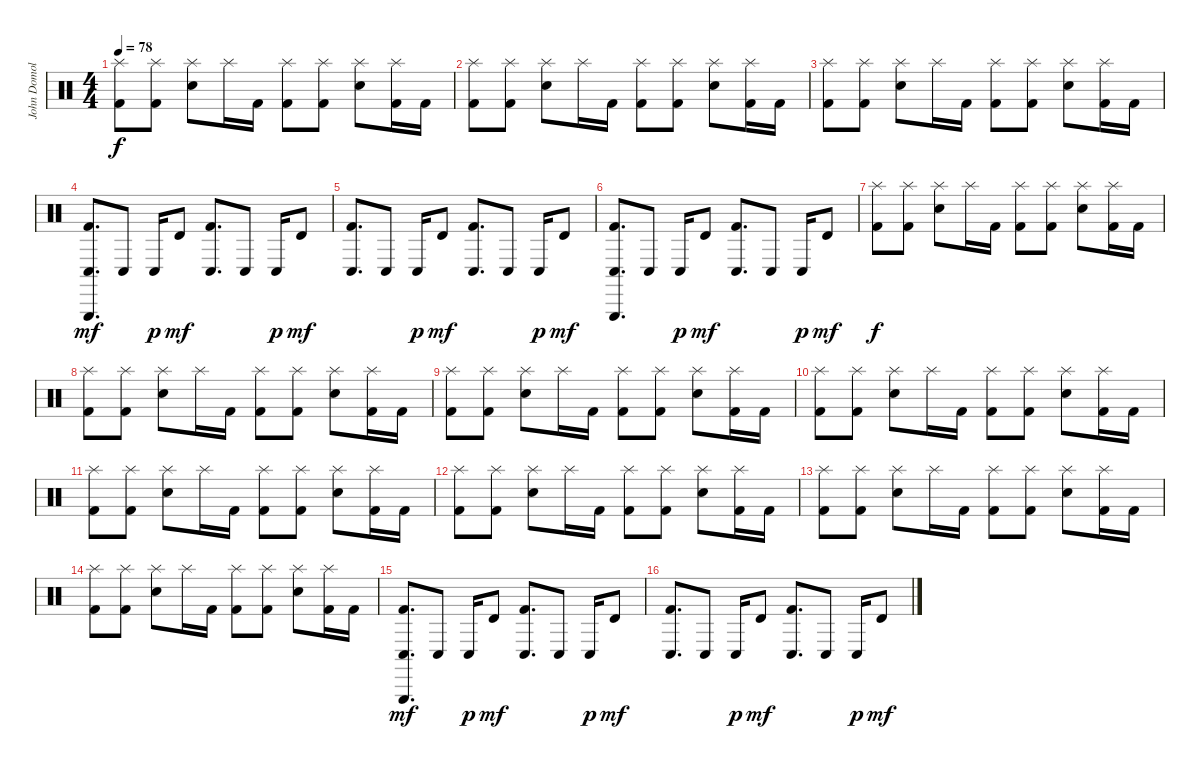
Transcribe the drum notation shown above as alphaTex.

\track ("John Domolyan (Drums)" "John Domol") {instrument percussion}
\staff {score}
\articulation defaults
\ts (4 4)
\tempo 78
\clef neutral
\ks c
("Splash (hit)" "Kick (hit) 2").8{dy f} ("Splash (hit)" "Kick (hit) 2").8 ("Splash (hit)" "Electric Snare (hit)").8 "Splash (hit)".16 "Kick (hit) 2".16 ("Splash (hit)" "Kick (hit) 2").8 ("Splash (hit)" "Kick (hit) 2").8 ("Splash (hit)" "Electric Snare (hit)").8 ("Splash (hit)" "Kick (hit) 2").16 "Kick (hit) 2".16 |
("Splash (hit)" "Kick (hit) 2").8 ("Splash (hit)" "Kick (hit) 2").8 ("Splash (hit)" "Electric Snare (hit)").8 "Splash (hit)".16 "Kick (hit) 2".16 ("Splash (hit)" "Kick (hit) 2").8 ("Splash (hit)" "Kick (hit) 2").8 ("Splash (hit)" "Electric Snare (hit)").8 ("Splash (hit)" "Kick (hit) 2").16 "Kick (hit) 2".16 |
("Splash (hit)" "Kick (hit) 2").8 ("Splash (hit)" "Kick (hit) 2").8 ("Splash (hit)" "Electric Snare (hit)").8 "Splash (hit)".16 "Kick (hit) 2".16 ("Splash (hit)" "Kick (hit) 2").8 ("Splash (hit)" "Kick (hit) 2").8 ("Splash (hit)" "Electric Snare (hit)").8 ("Splash (hit)" "Kick (hit) 2").16 "Kick (hit) 2".16 |
("Triangle (hit)" "Conga low (hit)" "Kick (hit) 2").8{d dy mf} "Conga low (hit)".8 "Conga low (hit)".16{dy p} "Timbale high (hit)".8{dy mf} ("Conga low (hit)" "Kick (hit) 2").8{d} "Conga low (hit)".8 "Conga low (hit)".16{dy p} "Timbale high (hit)".8{dy mf} |
("Conga low (hit)" "Kick (hit) 2").8{d} "Conga low (hit)".8 "Conga low (hit)".16{dy p} "Timbale high (hit)".8{dy mf} ("Conga low (hit)" "Kick (hit) 2").8{d} "Conga low (hit)".8 "Conga low (hit)".16{dy p} "Timbale high (hit)".8{dy mf} |
("Triangle (hit)" "Conga low (hit)" "Kick (hit) 2").8{d} "Conga low (hit)".8 "Conga low (hit)".16{dy p} "Timbale high (hit)".8{dy mf} ("Conga low (hit)" "Kick (hit) 2").8{d} "Conga low (hit)".8 "Conga low (hit)".16{dy p} "Timbale high (hit)".8{dy mf} |
("Splash (hit)" "Kick (hit) 2").8{dy f} ("Splash (hit)" "Kick (hit) 2").8 ("Splash (hit)" "Electric Snare (hit)").8 "Splash (hit)".16 "Kick (hit) 2".16 ("Splash (hit)" "Kick (hit) 2").8 ("Splash (hit)" "Kick (hit) 2").8 ("Splash (hit)" "Electric Snare (hit)").8 ("Splash (hit)" "Kick (hit) 2").16 "Kick (hit) 2".16 |
("Splash (hit)" "Kick (hit) 2").8 ("Splash (hit)" "Kick (hit) 2").8 ("Splash (hit)" "Electric Snare (hit)").8 "Splash (hit)".16 "Kick (hit) 2".16 ("Splash (hit)" "Kick (hit) 2").8 ("Splash (hit)" "Kick (hit) 2").8 ("Splash (hit)" "Electric Snare (hit)").8 ("Splash (hit)" "Kick (hit) 2").16 "Kick (hit) 2".16 |
("Splash (hit)" "Kick (hit) 2").8 ("Splash (hit)" "Kick (hit) 2").8 ("Splash (hit)" "Electric Snare (hit)").8 "Splash (hit)".16 "Kick (hit) 2".16 ("Splash (hit)" "Kick (hit) 2").8 ("Splash (hit)" "Kick (hit) 2").8 ("Splash (hit)" "Electric Snare (hit)").8 ("Splash (hit)" "Kick (hit) 2").16 "Kick (hit) 2".16 |
("Splash (hit)" "Kick (hit) 2").8 ("Splash (hit)" "Kick (hit) 2").8 ("Splash (hit)" "Electric Snare (hit)").8 "Splash (hit)".16 "Kick (hit) 2".16 ("Splash (hit)" "Kick (hit) 2").8 ("Splash (hit)" "Kick (hit) 2").8 ("Splash (hit)" "Electric Snare (hit)").8 ("Splash (hit)" "Kick (hit) 2").16 "Kick (hit) 2".16 |
("Splash (hit)" "Kick (hit) 2").8 ("Splash (hit)" "Kick (hit) 2").8 ("Splash (hit)" "Electric Snare (hit)").8 "Splash (hit)".16 "Kick (hit) 2".16 ("Splash (hit)" "Kick (hit) 2").8 ("Splash (hit)" "Kick (hit) 2").8 ("Splash (hit)" "Electric Snare (hit)").8 ("Splash (hit)" "Kick (hit) 2").16 "Kick (hit) 2".16 |
("Splash (hit)" "Kick (hit) 2").8 ("Splash (hit)" "Kick (hit) 2").8 ("Splash (hit)" "Electric Snare (hit)").8 "Splash (hit)".16 "Kick (hit) 2".16 ("Splash (hit)" "Kick (hit) 2").8 ("Splash (hit)" "Kick (hit) 2").8 ("Splash (hit)" "Electric Snare (hit)").8 ("Splash (hit)" "Kick (hit) 2").16 "Kick (hit) 2".16 |
("Splash (hit)" "Kick (hit) 2").8 ("Splash (hit)" "Kick (hit) 2").8 ("Splash (hit)" "Electric Snare (hit)").8 "Splash (hit)".16 "Kick (hit) 2".16 ("Splash (hit)" "Kick (hit) 2").8 ("Splash (hit)" "Kick (hit) 2").8 ("Splash (hit)" "Electric Snare (hit)").8 ("Splash (hit)" "Kick (hit) 2").16 "Kick (hit) 2".16 |
("Splash (hit)" "Kick (hit) 2").8 ("Splash (hit)" "Kick (hit) 2").8 ("Splash (hit)" "Electric Snare (hit)").8 "Splash (hit)".16 "Kick (hit) 2".16 ("Splash (hit)" "Kick (hit) 2").8 ("Splash (hit)" "Kick (hit) 2").8 ("Splash (hit)" "Electric Snare (hit)").8 ("Splash (hit)" "Kick (hit) 2").16 "Kick (hit) 2".16 |
("Triangle (hit)" "Conga low (hit)" "Kick (hit) 2").8{d dy mf} "Conga low (hit)".8 "Conga low (hit)".16{dy p} "Timbale high (hit)".8{dy mf} ("Conga low (hit)" "Kick (hit) 2").8{d} "Conga low (hit)".8 "Conga low (hit)".16{dy p} "Timbale high (hit)".8{dy mf} |
("Conga low (hit)" "Kick (hit) 2").8{d} "Conga low (hit)".8 "Conga low (hit)".16{dy p} "Timbale high (hit)".8{dy mf} ("Conga low (hit)" "Kick (hit) 2").8{d} "Conga low (hit)".8 "Conga low (hit)".16{dy p} "Timbale high (hit)".8{dy mf}
